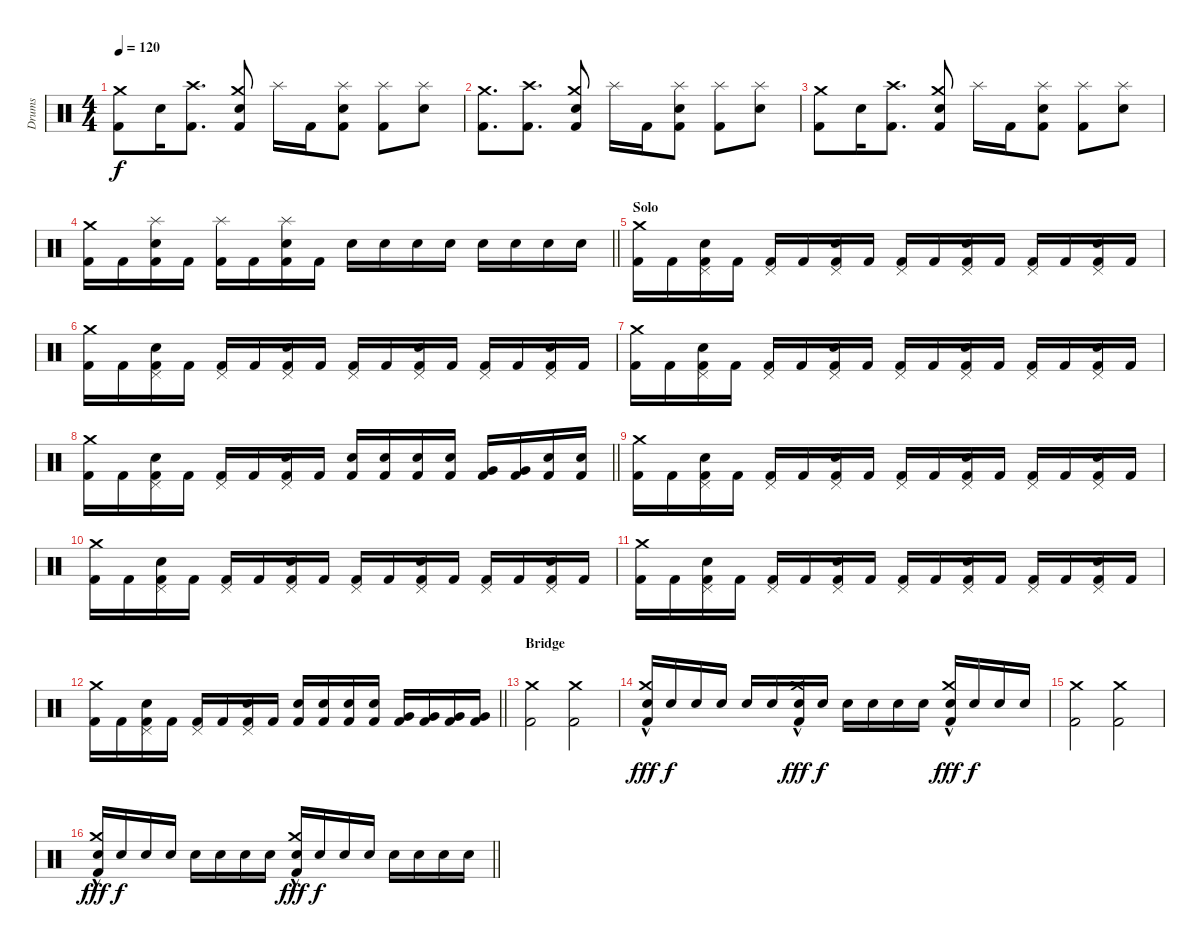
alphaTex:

\track ("Drums" "Drums") {instrument percussion}
\staff {score}
\articulation defaults
\ts (4 4)
\section ("" "")
\tempo 120
\clef neutral
\ks c
("Kick (hit) 2" "Crash medium (hit)").8{dy f} "Snare (hit) 2".16 ("Kick (hit) 2" "Crash high (hit)").8{d} ("Kick (hit) 2" "Snare (hit) 2" "Crash medium (hit)").8 "Splash (hit)".16 "Kick (hit) 2".16 ("Kick (hit) 2" "Snare (hit) 2" "Splash (hit)").8 ("Kick (hit) 2" "Splash (hit)").8 ("Snare (hit) 2" "Splash (hit)").8 |
("Kick (hit) 2" "Crash medium (hit)").8{d} ("Kick (hit) 2" "Crash high (hit)").8{d} ("Kick (hit) 2" "Snare (hit) 2" "Crash medium (hit)").8 "Splash (hit)".16 "Kick (hit) 2".16 ("Kick (hit) 2" "Snare (hit) 2" "Splash (hit)").8 ("Kick (hit) 2" "Splash (hit)").8 ("Snare (hit) 2" "Splash (hit)").8 |
("Kick (hit) 2" "Crash medium (hit)").8 "Snare (hit) 2".16 ("Kick (hit) 2" "Crash high (hit)").8{d} ("Kick (hit) 2" "Snare (hit) 2" "Crash medium (hit)").8 "Splash (hit)".16 "Kick (hit) 2".16 ("Kick (hit) 2" "Snare (hit) 2" "Splash (hit)").8 ("Kick (hit) 2" "Splash (hit)").8 ("Snare (hit) 2" "Splash (hit)").8 |
\barLineRight lightlight
("Kick (hit) 2" "Crash medium (hit)").16 "Kick (hit) 2".16 ("Kick (hit) 2" "Snare (hit) 2" "Splash (hit)").16 "Kick (hit) 2".16 ("Kick (hit) 2" "Splash (hit)").16 "Kick (hit) 2".16 ("Kick (hit) 2" "Snare (hit) 2" "Splash (hit)").16 "Kick (hit) 2".16 "Snare (hit) 2".16 "Snare (hit) 2".16 "Snare (hit) 2".16 "Snare (hit) 2".16 "Snare (hit) 2".16 "Snare (hit) 2".16 "Snare (hit) 2".16 "Snare (hit) 2".16 |
\section ("" "Solo")
("Kick (hit) 2" "Crash medium (hit)").16 "Kick (hit) 2".16 ("Kick (hit) 2" "Snare (hit) 2" "Pedal Hi-Hat (hit)").16 "Kick (hit) 2".16 ("Kick (hit) 2" "Pedal Hi-Hat (hit)").16 "Kick (hit) 2".16 ("Kick (hit) 2" "Snare (hit) 2" "Pedal Hi-Hat (hit)").16 "Kick (hit) 2".16 ("Kick (hit) 2" "Pedal Hi-Hat (hit)").16 "Kick (hit) 2".16 ("Kick (hit) 2" "Snare (hit) 2" "Pedal Hi-Hat (hit)").16 "Kick (hit) 2".16 ("Kick (hit) 2" "Pedal Hi-Hat (hit)").16 "Kick (hit) 2".16 ("Kick (hit) 2" "Snare (hit) 2" "Pedal Hi-Hat (hit)").16 "Kick (hit) 2".16 |
("Kick (hit) 2" "Crash medium (hit)").16 "Kick (hit) 2".16 ("Kick (hit) 2" "Snare (hit) 2" "Pedal Hi-Hat (hit)").16 "Kick (hit) 2".16 ("Kick (hit) 2" "Pedal Hi-Hat (hit)").16 "Kick (hit) 2".16 ("Kick (hit) 2" "Snare (hit) 2" "Pedal Hi-Hat (hit)").16 "Kick (hit) 2".16 ("Kick (hit) 2" "Pedal Hi-Hat (hit)").16 "Kick (hit) 2".16 ("Kick (hit) 2" "Snare (hit) 2" "Pedal Hi-Hat (hit)").16 "Kick (hit) 2".16 ("Kick (hit) 2" "Pedal Hi-Hat (hit)").16 "Kick (hit) 2".16 ("Kick (hit) 2" "Snare (hit) 2" "Pedal Hi-Hat (hit)").16 "Kick (hit) 2".16 |
("Kick (hit) 2" "Crash medium (hit)").16 "Kick (hit) 2".16 ("Kick (hit) 2" "Snare (hit) 2" "Pedal Hi-Hat (hit)").16 "Kick (hit) 2".16 ("Kick (hit) 2" "Pedal Hi-Hat (hit)").16 "Kick (hit) 2".16 ("Kick (hit) 2" "Snare (hit) 2" "Pedal Hi-Hat (hit)").16 "Kick (hit) 2".16 ("Kick (hit) 2" "Pedal Hi-Hat (hit)").16 "Kick (hit) 2".16 ("Kick (hit) 2" "Snare (hit) 2" "Pedal Hi-Hat (hit)").16 "Kick (hit) 2".16 ("Kick (hit) 2" "Pedal Hi-Hat (hit)").16 "Kick (hit) 2".16 ("Kick (hit) 2" "Snare (hit) 2" "Pedal Hi-Hat (hit)").16 "Kick (hit) 2".16 |
\barLineRight lightlight
("Kick (hit) 2" "Crash medium (hit)").16 "Kick (hit) 2".16 ("Kick (hit) 2" "Snare (hit) 2" "Pedal Hi-Hat (hit)").16 "Kick (hit) 2".16 ("Kick (hit) 2" "Pedal Hi-Hat (hit)").16 "Kick (hit) 2".16 ("Kick (hit) 2" "Snare (hit) 2" "Pedal Hi-Hat (hit)").16 "Kick (hit) 2".16 ("Kick (hit) 2" "Snare (hit) 2").16 ("Kick (hit) 2" "Snare (hit) 2").16 ("Kick (hit) 2" "Snare (hit) 2").16 ("Kick (hit) 2" "Snare (hit) 2").16 ("Kick (hit) 2" "Very Low Tom (hit)").16 ("Kick (hit) 2" "Very Low Tom (hit)").16 ("Kick (hit) 2" "Snare (hit) 2").16 ("Kick (hit) 2" "Snare (hit) 2").16 |
\section ("" "")
("Kick (hit) 2" "Crash medium (hit)").16 "Kick (hit) 2".16 ("Kick (hit) 2" "Snare (hit) 2" "Pedal Hi-Hat (hit)").16 "Kick (hit) 2".16 ("Kick (hit) 2" "Pedal Hi-Hat (hit)").16 "Kick (hit) 2".16 ("Kick (hit) 2" "Snare (hit) 2" "Pedal Hi-Hat (hit)").16 "Kick (hit) 2".16 ("Kick (hit) 2" "Pedal Hi-Hat (hit)").16 "Kick (hit) 2".16 ("Kick (hit) 2" "Snare (hit) 2" "Pedal Hi-Hat (hit)").16 "Kick (hit) 2".16 ("Kick (hit) 2" "Pedal Hi-Hat (hit)").16 "Kick (hit) 2".16 ("Kick (hit) 2" "Snare (hit) 2" "Pedal Hi-Hat (hit)").16 "Kick (hit) 2".16 |
("Kick (hit) 2" "Crash medium (hit)").16 "Kick (hit) 2".16 ("Kick (hit) 2" "Snare (hit) 2" "Pedal Hi-Hat (hit)").16 "Kick (hit) 2".16 ("Kick (hit) 2" "Pedal Hi-Hat (hit)").16 "Kick (hit) 2".16 ("Kick (hit) 2" "Snare (hit) 2" "Pedal Hi-Hat (hit)").16 "Kick (hit) 2".16 ("Kick (hit) 2" "Pedal Hi-Hat (hit)").16 "Kick (hit) 2".16 ("Kick (hit) 2" "Snare (hit) 2" "Pedal Hi-Hat (hit)").16 "Kick (hit) 2".16 ("Kick (hit) 2" "Pedal Hi-Hat (hit)").16 "Kick (hit) 2".16 ("Kick (hit) 2" "Snare (hit) 2" "Pedal Hi-Hat (hit)").16 "Kick (hit) 2".16 |
("Kick (hit) 2" "Crash medium (hit)").16 "Kick (hit) 2".16 ("Kick (hit) 2" "Snare (hit) 2" "Pedal Hi-Hat (hit)").16 "Kick (hit) 2".16 ("Kick (hit) 2" "Pedal Hi-Hat (hit)").16 "Kick (hit) 2".16 ("Kick (hit) 2" "Snare (hit) 2" "Pedal Hi-Hat (hit)").16 "Kick (hit) 2".16 ("Kick (hit) 2" "Pedal Hi-Hat (hit)").16 "Kick (hit) 2".16 ("Kick (hit) 2" "Snare (hit) 2" "Pedal Hi-Hat (hit)").16 "Kick (hit) 2".16 ("Kick (hit) 2" "Pedal Hi-Hat (hit)").16 "Kick (hit) 2".16 ("Kick (hit) 2" "Snare (hit) 2" "Pedal Hi-Hat (hit)").16 "Kick (hit) 2".16 |
\barLineRight lightlight
("Kick (hit) 2" "Crash medium (hit)").16 "Kick (hit) 2".16 ("Kick (hit) 2" "Snare (hit) 2" "Pedal Hi-Hat (hit)").16 "Kick (hit) 2".16 ("Kick (hit) 2" "Pedal Hi-Hat (hit)").16 "Kick (hit) 2".16 ("Kick (hit) 2" "Snare (hit) 2" "Pedal Hi-Hat (hit)").16 "Kick (hit) 2".16 ("Kick (hit) 2" "Snare (hit) 2").16 ("Kick (hit) 2" "Snare (hit) 2").16 ("Kick (hit) 2" "Snare (hit) 2").16 ("Kick (hit) 2" "Snare (hit) 2").16 ("Kick (hit) 2" "Very Low Tom (hit)").16 ("Kick (hit) 2" "Very Low Tom (hit)").16 ("Kick (hit) 2" "Very Low Tom (hit)").16 ("Kick (hit) 2" "Very Low Tom (hit)").16 |
\section ("" "Bridge")
("Kick (hit) 2" "Crash medium (hit)").2{volume 13} ("Kick (hit) 2" "Crash medium (hit)").2 |
("Kick (hit) 2"{hac} "Snare (hit) 2" "Crash medium (hit)").16{dy fff} "Snare (hit) 2".16{dy f} "Snare (hit) 2".16 "Snare (hit) 2".16 "Snare (hit) 2".16 "Snare (hit) 2".16 ("Kick (hit) 2"{hac} "Snare (hit) 2" "Crash medium (hit)").16{dy fff} "Snare (hit) 2".16{dy f} "Snare (hit) 2".16 "Snare (hit) 2".16 "Snare (hit) 2".16 "Snare (hit) 2".16 ("Kick (hit) 2"{hac} "Snare (hit) 2" "Crash medium (hit)").16{dy fff} "Snare (hit) 2".16{dy f} "Snare (hit) 2".16 "Snare (hit) 2".16 |
("Kick (hit) 2" "Crash medium (hit)").2 ("Kick (hit) 2" "Crash medium (hit)").2 |
\barLineRight lightlight
("Kick (hit) 2"{hac} "Snare (hit) 2" "Crash medium (hit)").16{dy fff} "Snare (hit) 2".16{dy f} "Snare (hit) 2".16 "Snare (hit) 2".16 "Snare (hit) 2".16 "Snare (hit) 2".16 "Snare (hit) 2".16 "Snare (hit) 2".16 ("Kick (hit) 2"{hac} "Snare (hit) 2" "Crash medium (hit)").16{dy fff} "Snare (hit) 2".16{dy f} "Snare (hit) 2".16 "Snare (hit) 2".16 "Snare (hit) 2".16 "Snare (hit) 2".16 "Snare (hit) 2".16 "Snare (hit) 2".16
